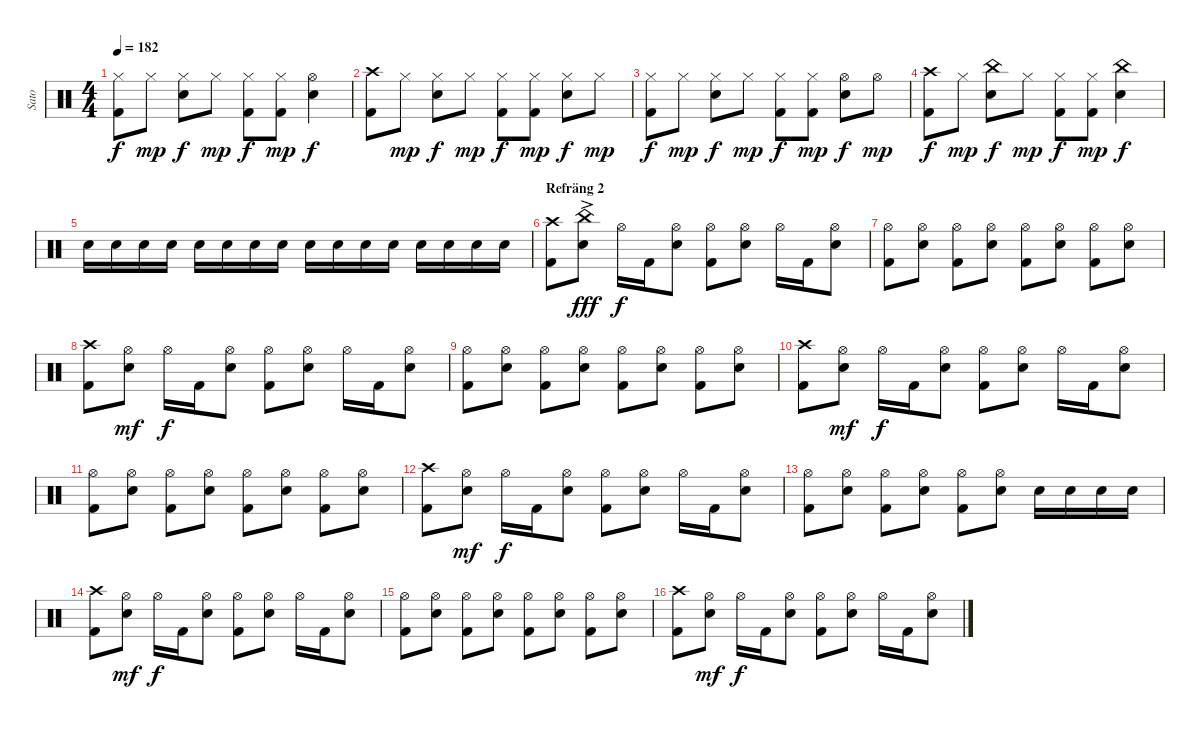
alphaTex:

\track ("Sato" "Sato") {instrument percussion}
\staff {score}
\articulation defaults
\ts (4 4)
\tempo 182
\clef neutral
\ks c
("Hi-Hat (closed)" "Kick (hit) 2").8{dy f} "Hi-Hat (closed)".8{dy mp} ("Hi-Hat (closed)" "Electric Snare (hit)").8{dy f} "Hi-Hat (closed)".8{dy mp} ("Hi-Hat (closed)" "Kick (hit) 2").8{dy f} ("Hi-Hat (closed)" "Kick (hit) 2").8{dy mp} ("Hi-Hat (open)" "Electric Snare (hit)").4{dy f} |
("Crash high (hit)" "Kick (hit) 2").8 "Hi-Hat (closed)".8{dy mp} ("Hi-Hat (closed)" "Electric Snare (hit)").8{dy f} "Hi-Hat (closed)".8{dy mp} ("Hi-Hat (closed)" "Kick (hit) 2").8{dy f} ("Hi-Hat (closed)" "Kick (hit) 2").8{dy mp} ("Hi-Hat (closed)" "Electric Snare (hit)").8{dy f} "Hi-Hat (closed)".8{dy mp} |
("Hi-Hat (closed)" "Kick (hit) 2").8{dy f} "Hi-Hat (closed)".8{dy mp} ("Hi-Hat (closed)" "Electric Snare (hit)").8{dy f} "Hi-Hat (closed)".8{dy mp} ("Hi-Hat (closed)" "Kick (hit) 2").8{dy f} ("Hi-Hat (closed)" "Kick (hit) 2").8{dy mp} ("Hi-Hat (open)" "Electric Snare (hit)").8{dy f} "Hi-Hat (open)".8{dy mp} |
("Crash high (hit)" "Kick (hit) 2").8{dy f} "Hi-Hat (closed)".8{dy mp} ("China (hit)" "Electric Snare (hit)").8{dy f} "Hi-Hat (closed)".8{dy mp} ("Hi-Hat (closed)" "Kick (hit) 2").8{dy f} ("Hi-Hat (closed)" "Kick (hit) 2").8{dy mp} ("China (hit)" "Electric Snare (hit)").4{dy f} |
"Electric Snare (hit)".16 "Electric Snare (hit)".16 "Electric Snare (hit)".16 "Electric Snare (hit)".16 "Electric Snare (hit)".16 "Electric Snare (hit)".16 "Electric Snare (hit)".16 "Electric Snare (hit)".16 "Electric Snare (hit)".16 "Electric Snare (hit)".16 "Electric Snare (hit)".16 "Electric Snare (hit)".16 "Electric Snare (hit)".16 "Electric Snare (hit)".16 "Electric Snare (hit)".16 "Electric Snare (hit)".16 |
\section ("" "Refräng 2")
("Crash high (hit)" "Kick (hit) 2").8 ("China (hit)" "Electric Snare (hit)"{ac}).8{dy fff} "Hi-Hat (open)".16{dy f} "Kick (hit) 2".16 ("Hi-Hat (open)" "Electric Snare (hit)").8 ("Hi-Hat (open)" "Kick (hit) 2").8 ("Hi-Hat (open)" "Electric Snare (hit)").8 "Hi-Hat (open)".16 "Kick (hit) 2".16 ("Hi-Hat (open)" "Electric Snare (hit)").8 |
("Hi-Hat (open)" "Kick (hit) 2").8 ("Hi-Hat (open)" "Electric Snare (hit)").8 ("Hi-Hat (open)" "Kick (hit) 2").8 ("Hi-Hat (open)" "Electric Snare (hit)").8 ("Hi-Hat (open)" "Kick (hit) 2").8 ("Hi-Hat (open)" "Electric Snare (hit)").8 ("Hi-Hat (open)" "Kick (hit) 2").8 ("Hi-Hat (open)" "Electric Snare (hit)").8 |
("Crash high (hit)" "Kick (hit) 2").8 ("Hi-Hat (open)" "Electric Snare (hit)").8{dy mf} "Hi-Hat (open)".16{dy f} "Kick (hit) 2".16 ("Hi-Hat (open)" "Electric Snare (hit)").8 ("Hi-Hat (open)" "Kick (hit) 2").8 ("Hi-Hat (open)" "Electric Snare (hit)").8 "Hi-Hat (open)".16 "Kick (hit) 2".16 ("Hi-Hat (open)" "Electric Snare (hit)").8 |
("Hi-Hat (open)" "Kick (hit) 2").8 ("Hi-Hat (open)" "Electric Snare (hit)").8 ("Hi-Hat (open)" "Kick (hit) 2").8 ("Hi-Hat (open)" "Electric Snare (hit)").8 ("Hi-Hat (open)" "Kick (hit) 2").8 ("Hi-Hat (open)" "Electric Snare (hit)").8 ("Hi-Hat (open)" "Kick (hit) 2").8 ("Hi-Hat (open)" "Electric Snare (hit)").8 |
("Crash high (hit)" "Kick (hit) 2").8 ("Hi-Hat (open)" "Electric Snare (hit)").8{dy mf} "Hi-Hat (open)".16{dy f} "Kick (hit) 2".16 ("Hi-Hat (open)" "Electric Snare (hit)").8 ("Hi-Hat (open)" "Kick (hit) 2").8 ("Hi-Hat (open)" "Electric Snare (hit)").8 "Hi-Hat (open)".16 "Kick (hit) 2".16 ("Hi-Hat (open)" "Electric Snare (hit)").8 |
("Hi-Hat (open)" "Kick (hit) 2").8 ("Hi-Hat (open)" "Electric Snare (hit)").8 ("Hi-Hat (open)" "Kick (hit) 2").8 ("Hi-Hat (open)" "Electric Snare (hit)").8 ("Hi-Hat (open)" "Kick (hit) 2").8 ("Hi-Hat (open)" "Electric Snare (hit)").8 ("Hi-Hat (open)" "Kick (hit) 2").8 ("Hi-Hat (open)" "Electric Snare (hit)").8 |
("Crash high (hit)" "Kick (hit) 2").8 ("Hi-Hat (open)" "Electric Snare (hit)").8{dy mf} "Hi-Hat (open)".16{dy f} "Kick (hit) 2".16 ("Hi-Hat (open)" "Electric Snare (hit)").8 ("Hi-Hat (open)" "Kick (hit) 2").8 ("Hi-Hat (open)" "Electric Snare (hit)").8 "Hi-Hat (open)".16 "Kick (hit) 2".16 ("Hi-Hat (open)" "Electric Snare (hit)").8 |
("Hi-Hat (open)" "Kick (hit) 2").8 ("Hi-Hat (open)" "Electric Snare (hit)").8 ("Hi-Hat (open)" "Kick (hit) 2").8 ("Hi-Hat (open)" "Electric Snare (hit)").8 ("Hi-Hat (open)" "Kick (hit) 2").8 ("Hi-Hat (open)" "Electric Snare (hit)").8 "Electric Snare (hit)".16 "Electric Snare (hit)".16 "Electric Snare (hit)".16 "Electric Snare (hit)".16 |
("Crash high (hit)" "Kick (hit) 2").8 ("Hi-Hat (open)" "Electric Snare (hit)").8{dy mf} "Hi-Hat (open)".16{dy f} "Kick (hit) 2".16 ("Hi-Hat (open)" "Electric Snare (hit)").8 ("Hi-Hat (open)" "Kick (hit) 2").8 ("Hi-Hat (open)" "Electric Snare (hit)").8 "Hi-Hat (open)".16 "Kick (hit) 2".16 ("Hi-Hat (open)" "Electric Snare (hit)").8 |
("Hi-Hat (open)" "Kick (hit) 2").8 ("Hi-Hat (open)" "Electric Snare (hit)").8 ("Hi-Hat (open)" "Kick (hit) 2").8 ("Hi-Hat (open)" "Electric Snare (hit)").8 ("Hi-Hat (open)" "Kick (hit) 2").8 ("Hi-Hat (open)" "Electric Snare (hit)").8 ("Hi-Hat (open)" "Kick (hit) 2").8 ("Hi-Hat (open)" "Electric Snare (hit)").8 |
("Crash high (hit)" "Kick (hit) 2").8 ("Hi-Hat (open)" "Electric Snare (hit)").8{dy mf} "Hi-Hat (open)".16{dy f} "Kick (hit) 2".16 ("Hi-Hat (open)" "Electric Snare (hit)").8 ("Hi-Hat (open)" "Kick (hit) 2").8 ("Hi-Hat (open)" "Electric Snare (hit)").8 "Hi-Hat (open)".16 "Kick (hit) 2".16 ("Hi-Hat (open)" "Electric Snare (hit)").8
